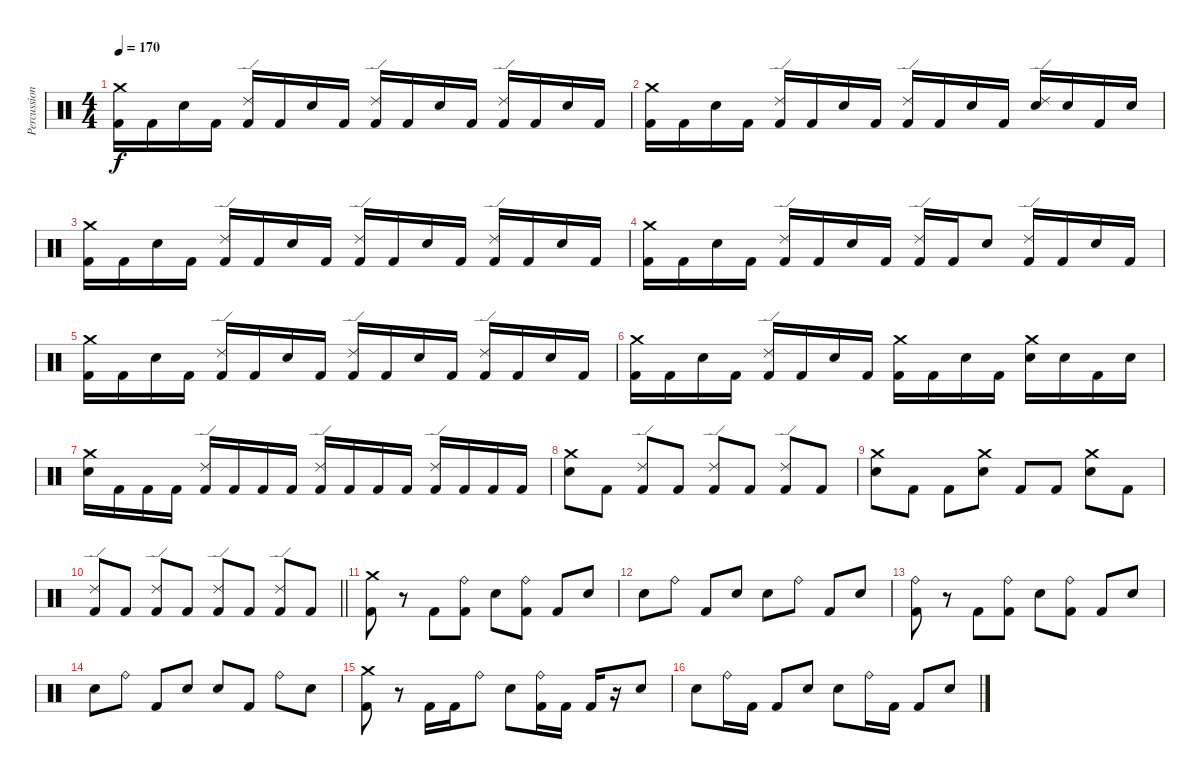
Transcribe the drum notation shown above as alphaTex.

\track ("Percussion" "Percussion") {instrument percussion}
\staff {score}
\articulation defaults
\ts (4 4)
\tempo 170
\clef neutral
\ks c
("Crash medium (hit)" "Kick (hit) 2").16{dy f} "Kick (hit) 2".16 "Electric Snare (hit)".16 "Kick (hit) 2".16 ("Ride (edge) 2" "Kick (hit) 2").16 "Kick (hit) 2".16 "Electric Snare (hit)".16 "Kick (hit) 2".16 ("Ride (edge) 2" "Kick (hit) 2").16 "Kick (hit) 2".16 "Electric Snare (hit)".16 "Kick (hit) 2".16 ("Ride (edge) 2" "Kick (hit) 2").16 "Kick (hit) 2".16 "Electric Snare (hit)".16 "Kick (hit) 2".16 |
("Crash medium (hit)" "Kick (hit) 2").16 "Kick (hit) 2".16 "Electric Snare (hit)".16 "Kick (hit) 2".16 ("Ride (edge) 2" "Kick (hit) 2").16 "Kick (hit) 2".16 "Electric Snare (hit)".16 "Kick (hit) 2".16 ("Ride (edge) 2" "Kick (hit) 2").16 "Kick (hit) 2".16 "Electric Snare (hit)".16 "Kick (hit) 2".16 ("Electric Snare (hit)" "Ride (edge) 2").16 "Electric Snare (hit)".16 "Kick (hit) 2".16 "Electric Snare (hit)".16 |
("Crash medium (hit)" "Kick (hit) 2").16 "Kick (hit) 2".16 "Electric Snare (hit)".16 "Kick (hit) 2".16 ("Ride (edge) 2" "Kick (hit) 2").16 "Kick (hit) 2".16 "Electric Snare (hit)".16 "Kick (hit) 2".16 ("Ride (edge) 2" "Kick (hit) 2").16 "Kick (hit) 2".16 "Electric Snare (hit)".16 "Kick (hit) 2".16 ("Ride (edge) 2" "Kick (hit) 2").16 "Kick (hit) 2".16 "Electric Snare (hit)".16 "Kick (hit) 2".16 |
("Crash medium (hit)" "Kick (hit) 2").16 "Kick (hit) 2".16 "Electric Snare (hit)".16 "Kick (hit) 2".16 ("Ride (edge) 2" "Kick (hit) 2").16 "Kick (hit) 2".16 "Electric Snare (hit)".16 "Kick (hit) 2".16 ("Ride (edge) 2" "Kick (hit) 2").16 "Kick (hit) 2".16 "Electric Snare (hit)".8 ("Ride (edge) 2" "Kick (hit) 2").16 "Kick (hit) 2".16 "Electric Snare (hit)".16 "Kick (hit) 2".16 |
("Crash medium (hit)" "Kick (hit) 2").16 "Kick (hit) 2".16 "Electric Snare (hit)".16 "Kick (hit) 2".16 ("Ride (edge) 2" "Kick (hit) 2").16 "Kick (hit) 2".16 "Electric Snare (hit)".16 "Kick (hit) 2".16 ("Ride (edge) 2" "Kick (hit) 2").16 "Kick (hit) 2".16 "Electric Snare (hit)".16 "Kick (hit) 2".16 ("Ride (edge) 2" "Kick (hit) 2").16 "Kick (hit) 2".16 "Electric Snare (hit)".16 "Kick (hit) 2".16 |
("Crash medium (hit)" "Kick (hit) 2").16 "Kick (hit) 2".16 "Electric Snare (hit)".16 "Kick (hit) 2".16 ("Ride (edge) 2" "Kick (hit) 2").16 "Kick (hit) 2".16 "Electric Snare (hit)".16 "Kick (hit) 2".16 ("Crash medium (hit)" "Kick (hit) 2").16 "Kick (hit) 2".16 "Electric Snare (hit)".16 "Kick (hit) 2".16 ("Electric Snare (hit)" "Crash medium (hit)").16 "Electric Snare (hit)".16 "Kick (hit) 2".16 "Electric Snare (hit)".16 |
("Crash medium (hit)" "Electric Snare (hit)").16 "Kick (hit) 2".16 "Kick (hit) 2".16 "Kick (hit) 2".16 ("Ride (edge) 2" "Kick (hit) 2").16 "Kick (hit) 2".16 "Kick (hit) 2".16 "Kick (hit) 2".16 ("Ride (edge) 2" "Kick (hit) 2").16 "Kick (hit) 2".16 "Kick (hit) 2".16 "Kick (hit) 2".16 ("Ride (edge) 2" "Kick (hit) 2").16 "Kick (hit) 2".16 "Kick (hit) 2".16 "Kick (hit) 2".16 |
("Crash medium (hit)" "Electric Snare (hit)").8 "Kick (hit) 2".8 ("Ride (edge) 2" "Kick (hit) 2").8 "Kick (hit) 2".8 ("Ride (edge) 2" "Kick (hit) 2").8 "Kick (hit) 2".8 ("Ride (edge) 2" "Kick (hit) 2").8 "Kick (hit) 2".8 |
("Crash medium (hit)" "Electric Snare (hit)").8 "Kick (hit) 2".8 "Kick (hit) 2".8 ("Crash medium (hit)" "Electric Snare (hit)").8 "Kick (hit) 2".8 "Kick (hit) 2".8 ("Crash medium (hit)" "Electric Snare (hit)").8 "Kick (hit) 2".8 |
\barLineRight lightlight
("Ride (edge) 2" "Kick (hit) 2").8 "Kick (hit) 2".8 ("Ride (edge) 2" "Kick (hit) 2").8 "Kick (hit) 2".8 ("Ride (edge) 2" "Kick (hit) 2").8 "Kick (hit) 2".8 ("Ride (edge) 2" "Kick (hit) 2").8 "Kick (hit) 2".8 |
\section ("" "")
("Crash medium (hit)" "Kick (hit) 2").8 r.8 "Kick (hit) 2".8 ("Ride (bell)" "Kick (hit) 2").8 "Electric Snare (hit)".8 ("Ride (bell)" "Kick (hit) 2").8 "Kick (hit) 2".8 "Electric Snare (hit)".8 |
"Electric Snare (hit)".8 "Ride (bell)".8 "Kick (hit) 2".8 "Electric Snare (hit)".8 "Electric Snare (hit)".8 "Ride (bell)".8 "Kick (hit) 2".8 "Electric Snare (hit)".8 |
("Ride (bell)" "Kick (hit) 2").8 r.8 "Kick (hit) 2".8 ("Ride (bell)" "Kick (hit) 2").8 "Electric Snare (hit)".8 ("Ride (bell)" "Kick (hit) 2").8 "Kick (hit) 2".8 "Electric Snare (hit)".8 |
"Electric Snare (hit)".8 "Ride (bell)".8 "Kick (hit) 2".8 "Electric Snare (hit)".8 "Electric Snare (hit)".8 "Kick (hit) 2".8 "Ride (bell)".8 "Electric Snare (hit)".8 |
("Crash medium (hit)" "Kick (hit) 2").8 r.8 "Kick (hit) 2".16 "Kick (hit) 2".16 "Ride (bell)".8 "Electric Snare (hit)".8 ("Kick (hit) 2" "Ride (bell)").16 "Kick (hit) 2".16 "Kick (hit) 2".16 r.16 "Electric Snare (hit)".8 |
"Electric Snare (hit)".8 "Ride (bell)".16 "Kick (hit) 2".16 "Kick (hit) 2".8 "Electric Snare (hit)".8 "Electric Snare (hit)".8 "Ride (bell)".16 "Kick (hit) 2".16 "Kick (hit) 2".8 "Electric Snare (hit)".8
